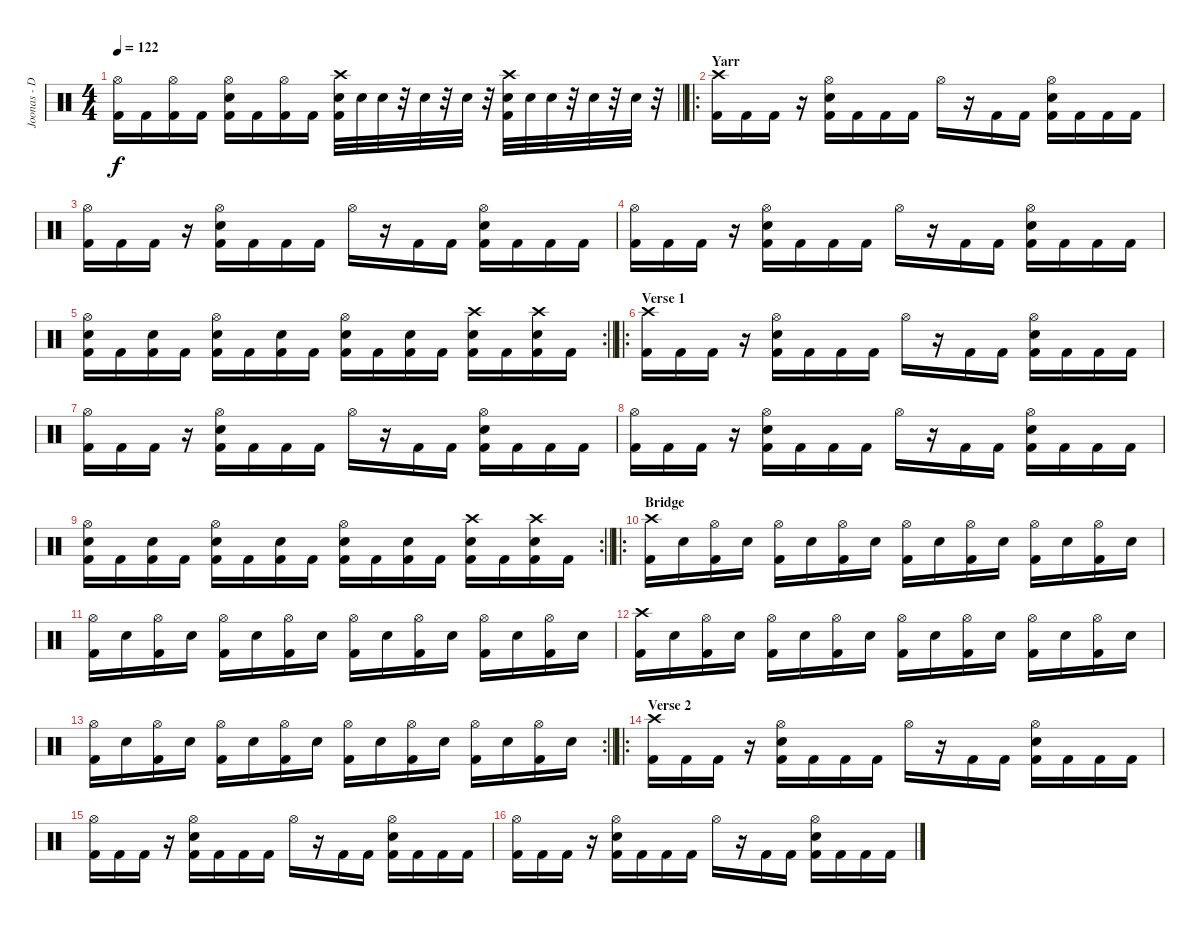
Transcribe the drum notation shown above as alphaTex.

\track ("Joonas - Drums" "Joonas - D") {instrument percussion}
\staff {score}
\articulation defaults
\ts (4 4)
\tempo 122
\clef neutral
\barLineRight lightlight
\ks c
("Hi-Hat (open)" "Kick (hit) 2").16{dy f} "Kick (hit) 2".16 ("Hi-Hat (open)" "Kick (hit) 2").16 "Kick (hit) 2".16 ("Hi-Hat (open)" "Electric Snare (hit)" "Kick (hit) 2").16 "Kick (hit) 2".16 ("Hi-Hat (open)" "Kick (hit) 2").16 "Kick (hit) 2".16 ("Crash high (hit)" "Electric Snare (hit)" "Kick (hit) 2").32 "Electric Snare (hit)".32 "Electric Snare (hit)".32 r.32 "Electric Snare (hit)".32 r.32 "Electric Snare (hit)".32 r.32 ("Crash high (hit)" "Electric Snare (hit)" "Kick (hit) 2").32 "Electric Snare (hit)".32 "Electric Snare (hit)".32 r.32 "Electric Snare (hit)".32 r.32 "Electric Snare (hit)".32 r.32 |
\ro
\section ("" "Yarr")
("Crash high (hit)" "Kick (hit) 2").16 "Kick (hit) 2".16 "Kick (hit) 2".16 r.16 ("Hi-Hat (open)" "Electric Snare (hit)" "Kick (hit) 2").16 "Kick (hit) 2".16 "Kick (hit) 2".16 "Kick (hit) 2".16 "Hi-Hat (open)".16 r.16 "Kick (hit) 2".16 "Kick (hit) 2".16 ("Hi-Hat (open)" "Electric Snare (hit)" "Kick (hit) 2").16 "Kick (hit) 2".16 "Kick (hit) 2".16 "Kick (hit) 2".16 |
("Hi-Hat (open)" "Kick (hit) 2").16 "Kick (hit) 2".16 "Kick (hit) 2".16 r.16 ("Hi-Hat (open)" "Electric Snare (hit)" "Kick (hit) 2").16 "Kick (hit) 2".16 "Kick (hit) 2".16 "Kick (hit) 2".16 "Hi-Hat (open)".16 r.16 "Kick (hit) 2".16 "Kick (hit) 2".16 ("Hi-Hat (open)" "Electric Snare (hit)" "Kick (hit) 2").16 "Kick (hit) 2".16 "Kick (hit) 2".16 "Kick (hit) 2".16 |
("Hi-Hat (open)" "Kick (hit) 2").16 "Kick (hit) 2".16 "Kick (hit) 2".16 r.16 ("Hi-Hat (open)" "Electric Snare (hit)" "Kick (hit) 2").16 "Kick (hit) 2".16 "Kick (hit) 2".16 "Kick (hit) 2".16 "Hi-Hat (open)".16 r.16 "Kick (hit) 2".16 "Kick (hit) 2".16 ("Hi-Hat (open)" "Electric Snare (hit)" "Kick (hit) 2").16 "Kick (hit) 2".16 "Kick (hit) 2".16 "Kick (hit) 2".16 |
\rc 2
\barLineRight lightlight
("Hi-Hat (open)" "Electric Snare (hit)" "Kick (hit) 2").16 "Kick (hit) 2".16 ("Electric Snare (hit)" "Kick (hit) 2").16 "Kick (hit) 2".16 ("Hi-Hat (open)" "Electric Snare (hit)" "Kick (hit) 2").16 "Kick (hit) 2".16 ("Electric Snare (hit)" "Kick (hit) 2").16 "Kick (hit) 2".16 ("Hi-Hat (open)" "Electric Snare (hit)" "Kick (hit) 2").16 "Kick (hit) 2".16 ("Electric Snare (hit)" "Kick (hit) 2").16 "Kick (hit) 2".16 ("Crash high (hit)" "Electric Snare (hit)" "Kick (hit) 2").16 "Kick (hit) 2".16 ("Crash high (hit)" "Electric Snare (hit)" "Kick (hit) 2").16 "Kick (hit) 2".16 |
\ro
\section ("" "Verse 1")
("Crash high (hit)" "Kick (hit) 2").16 "Kick (hit) 2".16 "Kick (hit) 2".16 r.16 ("Hi-Hat (open)" "Electric Snare (hit)" "Kick (hit) 2").16 "Kick (hit) 2".16 "Kick (hit) 2".16 "Kick (hit) 2".16 "Hi-Hat (open)".16 r.16 "Kick (hit) 2".16 "Kick (hit) 2".16 ("Hi-Hat (open)" "Electric Snare (hit)" "Kick (hit) 2").16 "Kick (hit) 2".16 "Kick (hit) 2".16 "Kick (hit) 2".16 |
("Hi-Hat (open)" "Kick (hit) 2").16 "Kick (hit) 2".16 "Kick (hit) 2".16 r.16 ("Hi-Hat (open)" "Electric Snare (hit)" "Kick (hit) 2").16 "Kick (hit) 2".16 "Kick (hit) 2".16 "Kick (hit) 2".16 "Hi-Hat (open)".16 r.16 "Kick (hit) 2".16 "Kick (hit) 2".16 ("Hi-Hat (open)" "Electric Snare (hit)" "Kick (hit) 2").16 "Kick (hit) 2".16 "Kick (hit) 2".16 "Kick (hit) 2".16 |
("Hi-Hat (open)" "Kick (hit) 2").16 "Kick (hit) 2".16 "Kick (hit) 2".16 r.16 ("Hi-Hat (open)" "Electric Snare (hit)" "Kick (hit) 2").16 "Kick (hit) 2".16 "Kick (hit) 2".16 "Kick (hit) 2".16 "Hi-Hat (open)".16 r.16 "Kick (hit) 2".16 "Kick (hit) 2".16 ("Hi-Hat (open)" "Electric Snare (hit)" "Kick (hit) 2").16 "Kick (hit) 2".16 "Kick (hit) 2".16 "Kick (hit) 2".16 |
\rc 2
\barLineRight lightlight
("Hi-Hat (open)" "Electric Snare (hit)" "Kick (hit) 2").16 "Kick (hit) 2".16 ("Electric Snare (hit)" "Kick (hit) 2").16 "Kick (hit) 2".16 ("Hi-Hat (open)" "Electric Snare (hit)" "Kick (hit) 2").16 "Kick (hit) 2".16 ("Electric Snare (hit)" "Kick (hit) 2").16 "Kick (hit) 2".16 ("Hi-Hat (open)" "Electric Snare (hit)" "Kick (hit) 2").16 "Kick (hit) 2".16 ("Electric Snare (hit)" "Kick (hit) 2").16 "Kick (hit) 2".16 ("Crash high (hit)" "Electric Snare (hit)" "Kick (hit) 2").16 "Kick (hit) 2".16 ("Crash high (hit)" "Electric Snare (hit)" "Kick (hit) 2").16 "Kick (hit) 2".16 |
\ro
\section ("" "Bridge")
("Crash high (hit)" "Kick (hit) 2").16 "Electric Snare (hit)".16 ("Hi-Hat (open)" "Kick (hit) 2").16 "Electric Snare (hit)".16 ("Hi-Hat (open)" "Kick (hit) 2").16 "Electric Snare (hit)".16 ("Hi-Hat (open)" "Kick (hit) 2").16 "Electric Snare (hit)".16 ("Hi-Hat (open)" "Kick (hit) 2").16 "Electric Snare (hit)".16 ("Hi-Hat (open)" "Kick (hit) 2").16 "Electric Snare (hit)".16 ("Hi-Hat (open)" "Kick (hit) 2").16 "Electric Snare (hit)".16 ("Hi-Hat (open)" "Kick (hit) 2").16 "Electric Snare (hit)".16 |
("Hi-Hat (open)" "Kick (hit) 2").16 "Electric Snare (hit)".16 ("Hi-Hat (open)" "Kick (hit) 2").16 "Electric Snare (hit)".16 ("Hi-Hat (open)" "Kick (hit) 2").16 "Electric Snare (hit)".16 ("Hi-Hat (open)" "Kick (hit) 2").16 "Electric Snare (hit)".16 ("Hi-Hat (open)" "Kick (hit) 2").16 "Electric Snare (hit)".16 ("Hi-Hat (open)" "Kick (hit) 2").16 "Electric Snare (hit)".16 ("Hi-Hat (open)" "Kick (hit) 2").16 "Electric Snare (hit)".16 ("Hi-Hat (open)" "Kick (hit) 2").16 "Electric Snare (hit)".16 |
("Crash high (hit)" "Kick (hit) 2").16 "Electric Snare (hit)".16 ("Hi-Hat (open)" "Kick (hit) 2").16 "Electric Snare (hit)".16 ("Hi-Hat (open)" "Kick (hit) 2").16 "Electric Snare (hit)".16 ("Hi-Hat (open)" "Kick (hit) 2").16 "Electric Snare (hit)".16 ("Hi-Hat (open)" "Kick (hit) 2").16 "Electric Snare (hit)".16 ("Hi-Hat (open)" "Kick (hit) 2").16 "Electric Snare (hit)".16 ("Hi-Hat (open)" "Kick (hit) 2").16 "Electric Snare (hit)".16 ("Hi-Hat (open)" "Kick (hit) 2").16 "Electric Snare (hit)".16 |
\rc 2
\barLineRight lightlight
("Hi-Hat (open)" "Kick (hit) 2").16 "Electric Snare (hit)".16 ("Hi-Hat (open)" "Kick (hit) 2").16 "Electric Snare (hit)".16 ("Hi-Hat (open)" "Kick (hit) 2").16 "Electric Snare (hit)".16 ("Hi-Hat (open)" "Kick (hit) 2").16 "Electric Snare (hit)".16 ("Hi-Hat (open)" "Kick (hit) 2").16 "Electric Snare (hit)".16 ("Hi-Hat (open)" "Kick (hit) 2").16 "Electric Snare (hit)".16 ("Hi-Hat (open)" "Kick (hit) 2").16 "Electric Snare (hit)".16 ("Hi-Hat (open)" "Kick (hit) 2").16 "Electric Snare (hit)".16 |
\ro
\section ("" "Verse 2")
("Crash high (hit)" "Kick (hit) 2").16 "Kick (hit) 2".16 "Kick (hit) 2".16 r.16 ("Hi-Hat (open)" "Electric Snare (hit)" "Kick (hit) 2").16 "Kick (hit) 2".16 "Kick (hit) 2".16 "Kick (hit) 2".16 "Hi-Hat (open)".16 r.16 "Kick (hit) 2".16 "Kick (hit) 2".16 ("Hi-Hat (open)" "Electric Snare (hit)" "Kick (hit) 2").16 "Kick (hit) 2".16 "Kick (hit) 2".16 "Kick (hit) 2".16 |
("Hi-Hat (open)" "Kick (hit) 2").16 "Kick (hit) 2".16 "Kick (hit) 2".16 r.16 ("Hi-Hat (open)" "Electric Snare (hit)" "Kick (hit) 2").16 "Kick (hit) 2".16 "Kick (hit) 2".16 "Kick (hit) 2".16 "Hi-Hat (open)".16 r.16 "Kick (hit) 2".16 "Kick (hit) 2".16 ("Hi-Hat (open)" "Electric Snare (hit)" "Kick (hit) 2").16 "Kick (hit) 2".16 "Kick (hit) 2".16 "Kick (hit) 2".16 |
("Hi-Hat (open)" "Kick (hit) 2").16 "Kick (hit) 2".16 "Kick (hit) 2".16 r.16 ("Hi-Hat (open)" "Electric Snare (hit)" "Kick (hit) 2").16 "Kick (hit) 2".16 "Kick (hit) 2".16 "Kick (hit) 2".16 "Hi-Hat (open)".16 r.16 "Kick (hit) 2".16 "Kick (hit) 2".16 ("Hi-Hat (open)" "Electric Snare (hit)" "Kick (hit) 2").16 "Kick (hit) 2".16 "Kick (hit) 2".16 "Kick (hit) 2".16
